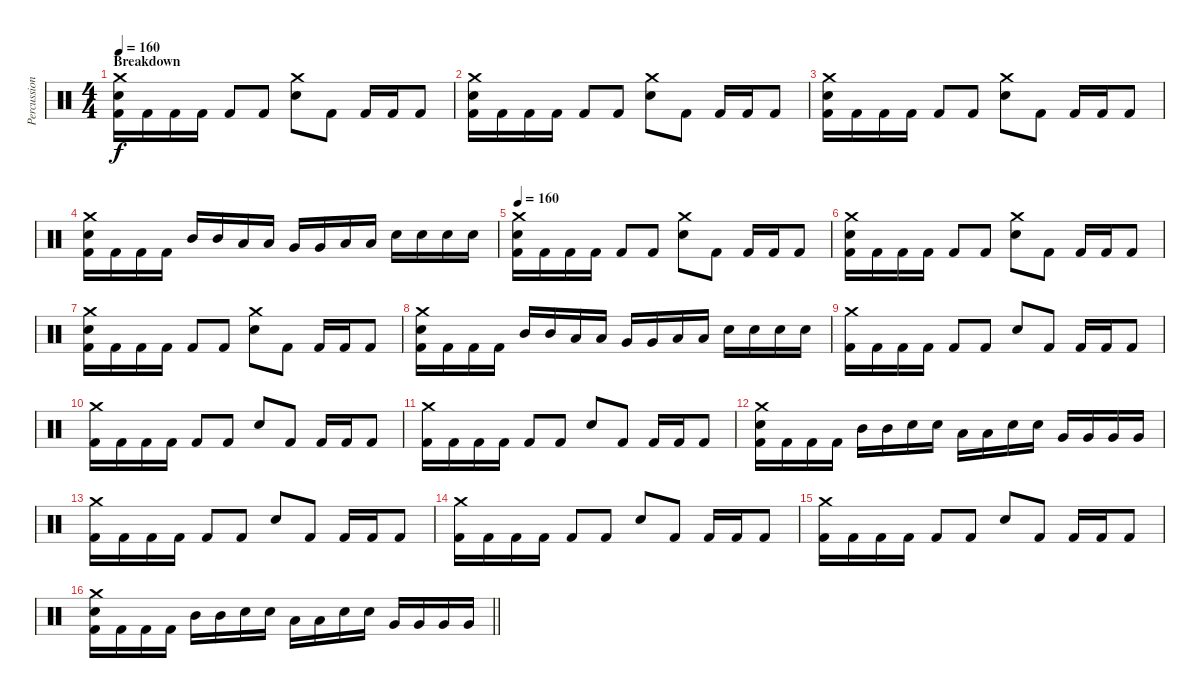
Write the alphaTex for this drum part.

\track ("Percussion" "Percussion") {instrument percussion}
\staff {score}
\articulation defaults
\ts (4 4)
\section ("" "Breakdown")
\tempo 160
\clef neutral
\ks c
("Crash medium (hit)" "Electric Snare (hit)" "Kick (hit) 2").16{dy f} "Kick (hit) 2".16 "Kick (hit) 2".16 "Kick (hit) 2".16 "Kick (hit) 2".8 "Kick (hit) 2".8 ("Crash medium (hit)" "Electric Snare (hit)").8 "Kick (hit) 2".8 "Kick (hit) 2".16 "Kick (hit) 2".16 "Kick (hit) 2".8 |
("Crash medium (hit)" "Electric Snare (hit)" "Kick (hit) 2").16 "Kick (hit) 2".16 "Kick (hit) 2".16 "Kick (hit) 2".16 "Kick (hit) 2".8 "Kick (hit) 2".8 ("Crash medium (hit)" "Electric Snare (hit)").8 "Kick (hit) 2".8 "Kick (hit) 2".16 "Kick (hit) 2".16 "Kick (hit) 2".8 |
("Crash medium (hit)" "Electric Snare (hit)" "Kick (hit) 2").16 "Kick (hit) 2".16 "Kick (hit) 2".16 "Kick (hit) 2".16 "Kick (hit) 2".8 "Kick (hit) 2".8 ("Crash medium (hit)" "Electric Snare (hit)").8 "Kick (hit) 2".8 "Kick (hit) 2".16 "Kick (hit) 2".16 "Kick (hit) 2".8 |
("Crash medium (hit)" "Electric Snare (hit)" "Kick (hit) 2").16 "Kick (hit) 2".16 "Kick (hit) 2".16 "Kick (hit) 2".16 "Mid Tom (hit)".16 "Mid Tom (hit)".16 "Low Tom (hit)".16 "Low Tom (hit)".16 "Very Low Tom (hit)".16 "Very Low Tom (hit)".16 "Low Floor Tom (hit)".16 "Low Floor Tom (hit)".16 "Electric Snare (hit)".16 "Electric Snare (hit)".16 "Electric Snare (hit)".16 "Electric Snare (hit)".16 |
\tempo 160
("Crash medium (hit)" "Electric Snare (hit)" "Kick (hit) 2").16 "Kick (hit) 2".16 "Kick (hit) 2".16 "Kick (hit) 2".16 "Kick (hit) 2".8 "Kick (hit) 2".8 ("Crash medium (hit)" "Electric Snare (hit)").8 "Kick (hit) 2".8 "Kick (hit) 2".16 "Kick (hit) 2".16 "Kick (hit) 2".8 |
("Crash medium (hit)" "Electric Snare (hit)" "Kick (hit) 2").16 "Kick (hit) 2".16 "Kick (hit) 2".16 "Kick (hit) 2".16 "Kick (hit) 2".8 "Kick (hit) 2".8 ("Crash medium (hit)" "Electric Snare (hit)").8 "Kick (hit) 2".8 "Kick (hit) 2".16 "Kick (hit) 2".16 "Kick (hit) 2".8 |
("Crash medium (hit)" "Electric Snare (hit)" "Kick (hit) 2").16 "Kick (hit) 2".16 "Kick (hit) 2".16 "Kick (hit) 2".16 "Kick (hit) 2".8 "Kick (hit) 2".8 ("Crash medium (hit)" "Electric Snare (hit)").8 "Kick (hit) 2".8 "Kick (hit) 2".16 "Kick (hit) 2".16 "Kick (hit) 2".8 |
("Crash medium (hit)" "Electric Snare (hit)" "Kick (hit) 2").16 "Kick (hit) 2".16 "Kick (hit) 2".16 "Kick (hit) 2".16 "Mid Tom (hit)".16 "Mid Tom (hit)".16 "Low Tom (hit)".16 "Low Tom (hit)".16 "Very Low Tom (hit)".16 "Very Low Tom (hit)".16 "Low Floor Tom (hit)".16 "Low Floor Tom (hit)".16 "Electric Snare (hit)".16 "Electric Snare (hit)".16 "Electric Snare (hit)".16 "Electric Snare (hit)".16 |
("Crash medium (hit)" "Kick (hit) 2").16 "Kick (hit) 2".16 "Kick (hit) 2".16 "Kick (hit) 2".16 "Kick (hit) 2".8 "Kick (hit) 2".8 "Electric Snare (hit)".8 "Kick (hit) 2".8 "Kick (hit) 2".16 "Kick (hit) 2".16 "Kick (hit) 2".8 |
("Crash medium (hit)" "Kick (hit) 2").16 "Kick (hit) 2".16 "Kick (hit) 2".16 "Kick (hit) 2".16 "Kick (hit) 2".8 "Kick (hit) 2".8 "Electric Snare (hit)".8 "Kick (hit) 2".8 "Kick (hit) 2".16 "Kick (hit) 2".16 "Kick (hit) 2".8 |
("Crash medium (hit)" "Kick (hit) 2").16 "Kick (hit) 2".16 "Kick (hit) 2".16 "Kick (hit) 2".16 "Kick (hit) 2".8 "Kick (hit) 2".8 "Electric Snare (hit)".8 "Kick (hit) 2".8 "Kick (hit) 2".16 "Kick (hit) 2".16 "Kick (hit) 2".8 |
("Crash medium (hit)" "Electric Snare (hit)" "Kick (hit) 2").16 "Kick (hit) 2".16 "Kick (hit) 2".16 "Kick (hit) 2".16 "Mid Tom (hit)".16 "Mid Tom (hit)".16 "Electric Snare (hit)".16 "Electric Snare (hit)".16 "Low Tom (hit)".16 "Low Tom (hit)".16 "Electric Snare (hit)".16 "Electric Snare (hit)".16 "Very Low Tom (hit)".16 "Very Low Tom (hit)".16 "Very Low Tom (hit)".16 "Very Low Tom (hit)".16 |
("Crash medium (hit)" "Kick (hit) 2").16 "Kick (hit) 2".16 "Kick (hit) 2".16 "Kick (hit) 2".16 "Kick (hit) 2".8 "Kick (hit) 2".8 "Electric Snare (hit)".8 "Kick (hit) 2".8 "Kick (hit) 2".16 "Kick (hit) 2".16 "Kick (hit) 2".8 |
("Crash medium (hit)" "Kick (hit) 2").16 "Kick (hit) 2".16 "Kick (hit) 2".16 "Kick (hit) 2".16 "Kick (hit) 2".8 "Kick (hit) 2".8 "Electric Snare (hit)".8 "Kick (hit) 2".8 "Kick (hit) 2".16 "Kick (hit) 2".16 "Kick (hit) 2".8 |
("Crash medium (hit)" "Kick (hit) 2").16 "Kick (hit) 2".16 "Kick (hit) 2".16 "Kick (hit) 2".16 "Kick (hit) 2".8 "Kick (hit) 2".8 "Electric Snare (hit)".8 "Kick (hit) 2".8 "Kick (hit) 2".16 "Kick (hit) 2".16 "Kick (hit) 2".8 |
\barLineRight lightlight
("Crash medium (hit)" "Electric Snare (hit)" "Kick (hit) 2").16 "Kick (hit) 2".16 "Kick (hit) 2".16 "Kick (hit) 2".16 "Mid Tom (hit)".16 "Mid Tom (hit)".16 "Electric Snare (hit)".16 "Electric Snare (hit)".16 "Low Tom (hit)".16 "Low Tom (hit)".16 "Electric Snare (hit)".16 "Electric Snare (hit)".16 "Very Low Tom (hit)".16 "Very Low Tom (hit)".16 "Very Low Tom (hit)".16 "Very Low Tom (hit)".16
